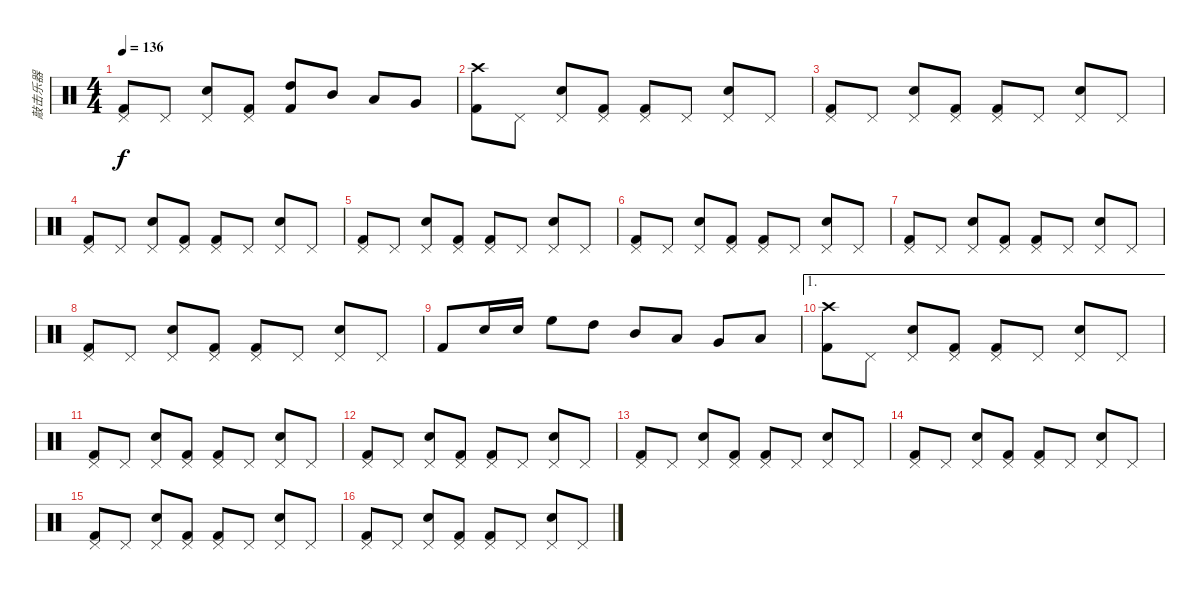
\track ("敲击乐器" "敲击乐器") {instrument percussion}
\staff {score}
\articulation defaults
\ts (4 4)
\tempo 136
\clef neutral
\ks c
("Pedal Hi-Hat (hit)" "Kick (hit) 2").8{dy f} "Pedal Hi-Hat (hit)".8 ("Pedal Hi-Hat (hit)" "Snare (hit) 2").8 ("Pedal Hi-Hat (hit)" "Kick (hit) 2").8 ("High Tom (hit)" "Kick (hit) 2").8 "Mid Tom (hit)".8 "Low Tom (hit)".8 "Very Low Tom (hit)".8 |
("Crash high (hit)" "Kick (hit) 2").8 "Pedal Hi-Hat (hit)".8 ("Pedal Hi-Hat (hit)" "Snare (hit) 2").8 ("Pedal Hi-Hat (hit)" "Kick (hit) 2").8 ("Pedal Hi-Hat (hit)" "Kick (hit) 2").8 "Pedal Hi-Hat (hit)".8 ("Pedal Hi-Hat (hit)" "Snare (hit) 2").8 "Pedal Hi-Hat (hit)".8 |
("Pedal Hi-Hat (hit)" "Kick (hit) 2").8 "Pedal Hi-Hat (hit)".8 ("Pedal Hi-Hat (hit)" "Snare (hit) 2").8 ("Pedal Hi-Hat (hit)" "Kick (hit) 2").8 ("Pedal Hi-Hat (hit)" "Kick (hit) 2").8 "Pedal Hi-Hat (hit)".8 ("Pedal Hi-Hat (hit)" "Snare (hit) 2").8 "Pedal Hi-Hat (hit)".8 |
("Pedal Hi-Hat (hit)" "Kick (hit) 2").8 "Pedal Hi-Hat (hit)".8 ("Pedal Hi-Hat (hit)" "Snare (hit) 2").8 ("Pedal Hi-Hat (hit)" "Kick (hit) 2").8 ("Pedal Hi-Hat (hit)" "Kick (hit) 2").8 "Pedal Hi-Hat (hit)".8 ("Pedal Hi-Hat (hit)" "Snare (hit) 2").8 "Pedal Hi-Hat (hit)".8 |
("Pedal Hi-Hat (hit)" "Kick (hit) 2").8 "Pedal Hi-Hat (hit)".8 ("Pedal Hi-Hat (hit)" "Snare (hit) 2").8 ("Pedal Hi-Hat (hit)" "Kick (hit) 2").8 ("Pedal Hi-Hat (hit)" "Kick (hit) 2").8 "Pedal Hi-Hat (hit)".8 ("Pedal Hi-Hat (hit)" "Snare (hit) 2").8 "Pedal Hi-Hat (hit)".8 |
("Pedal Hi-Hat (hit)" "Kick (hit) 2").8 "Pedal Hi-Hat (hit)".8 ("Pedal Hi-Hat (hit)" "Snare (hit) 2").8 ("Pedal Hi-Hat (hit)" "Kick (hit) 2").8 ("Pedal Hi-Hat (hit)" "Kick (hit) 2").8 "Pedal Hi-Hat (hit)".8 ("Pedal Hi-Hat (hit)" "Snare (hit) 2").8 "Pedal Hi-Hat (hit)".8 |
("Pedal Hi-Hat (hit)" "Kick (hit) 2").8 "Pedal Hi-Hat (hit)".8 ("Pedal Hi-Hat (hit)" "Snare (hit) 2").8 ("Pedal Hi-Hat (hit)" "Kick (hit) 2").8 ("Pedal Hi-Hat (hit)" "Kick (hit) 2").8 "Pedal Hi-Hat (hit)".8 ("Pedal Hi-Hat (hit)" "Snare (hit) 2").8 "Pedal Hi-Hat (hit)".8 |
("Pedal Hi-Hat (hit)" "Kick (hit) 2").8 "Pedal Hi-Hat (hit)".8 ("Pedal Hi-Hat (hit)" "Snare (hit) 2").8 ("Pedal Hi-Hat (hit)" "Kick (hit) 2").8 ("Pedal Hi-Hat (hit)" "Kick (hit) 2").8 "Pedal Hi-Hat (hit)".8 ("Pedal Hi-Hat (hit)" "Snare (hit) 2").8 "Pedal Hi-Hat (hit)".8 |
"Kick (hit) 2".8 "Snare (hit) 2".16 "Snare (hit) 2".16 "High Floor Tom (hit)".8 "High Tom (hit)".8 "Mid Tom (hit)".8 "Low Tom (hit)".8 "Very Low Tom (hit)".8 "Low Floor Tom (hit)".8 |
\ae 1
("Crash high (hit)" "Kick (hit) 2").8 "Pedal Hi-Hat (hit)".8 ("Pedal Hi-Hat (hit)" "Snare (hit) 2").8 ("Pedal Hi-Hat (hit)" "Kick (hit) 2").8 ("Pedal Hi-Hat (hit)" "Kick (hit) 2").8 "Pedal Hi-Hat (hit)".8 ("Pedal Hi-Hat (hit)" "Snare (hit) 2").8 "Pedal Hi-Hat (hit)".8 |
("Pedal Hi-Hat (hit)" "Kick (hit) 2").8 "Pedal Hi-Hat (hit)".8 ("Pedal Hi-Hat (hit)" "Snare (hit) 2").8 ("Pedal Hi-Hat (hit)" "Kick (hit) 2").8 ("Pedal Hi-Hat (hit)" "Kick (hit) 2").8 "Pedal Hi-Hat (hit)".8 ("Pedal Hi-Hat (hit)" "Snare (hit) 2").8 "Pedal Hi-Hat (hit)".8 |
("Pedal Hi-Hat (hit)" "Kick (hit) 2").8 "Pedal Hi-Hat (hit)".8 ("Pedal Hi-Hat (hit)" "Snare (hit) 2").8 ("Pedal Hi-Hat (hit)" "Kick (hit) 2").8 ("Pedal Hi-Hat (hit)" "Kick (hit) 2").8 "Pedal Hi-Hat (hit)".8 ("Pedal Hi-Hat (hit)" "Snare (hit) 2").8 "Pedal Hi-Hat (hit)".8 |
("Pedal Hi-Hat (hit)" "Kick (hit) 2").8 "Pedal Hi-Hat (hit)".8 ("Pedal Hi-Hat (hit)" "Snare (hit) 2").8 ("Pedal Hi-Hat (hit)" "Kick (hit) 2").8 ("Pedal Hi-Hat (hit)" "Kick (hit) 2").8 "Pedal Hi-Hat (hit)".8 ("Pedal Hi-Hat (hit)" "Snare (hit) 2").8 "Pedal Hi-Hat (hit)".8 |
("Pedal Hi-Hat (hit)" "Kick (hit) 2").8 "Pedal Hi-Hat (hit)".8 ("Pedal Hi-Hat (hit)" "Snare (hit) 2").8 ("Pedal Hi-Hat (hit)" "Kick (hit) 2").8 ("Pedal Hi-Hat (hit)" "Kick (hit) 2").8 "Pedal Hi-Hat (hit)".8 ("Pedal Hi-Hat (hit)" "Snare (hit) 2").8 "Pedal Hi-Hat (hit)".8 |
("Pedal Hi-Hat (hit)" "Kick (hit) 2").8 "Pedal Hi-Hat (hit)".8 ("Pedal Hi-Hat (hit)" "Snare (hit) 2").8 ("Pedal Hi-Hat (hit)" "Kick (hit) 2").8 ("Pedal Hi-Hat (hit)" "Kick (hit) 2").8 "Pedal Hi-Hat (hit)".8 ("Pedal Hi-Hat (hit)" "Snare (hit) 2").8 "Pedal Hi-Hat (hit)".8 |
("Pedal Hi-Hat (hit)" "Kick (hit) 2").8 "Pedal Hi-Hat (hit)".8 ("Pedal Hi-Hat (hit)" "Snare (hit) 2").8 ("Pedal Hi-Hat (hit)" "Kick (hit) 2").8 ("Pedal Hi-Hat (hit)" "Kick (hit) 2").8 "Pedal Hi-Hat (hit)".8 ("Pedal Hi-Hat (hit)" "Snare (hit) 2").8 "Pedal Hi-Hat (hit)".8
